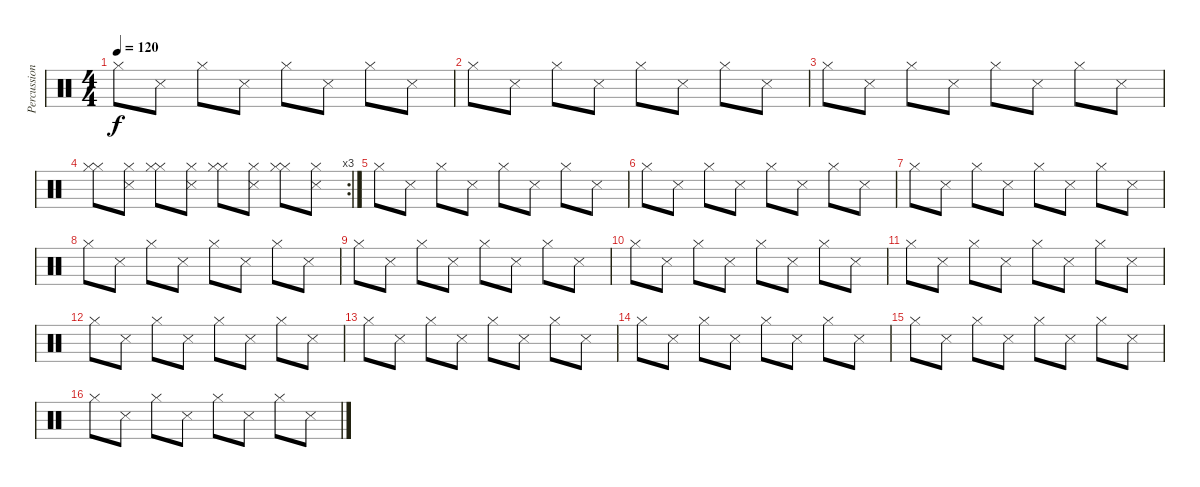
\track ("Percussion" "Percussion") {instrument percussion}
\staff {score}
\articulation defaults
\ts (4 4)
\tempo 120
\clef neutral
\ks c "Hi-Hat (closed)".8{dy f} "Snare (side stick) 3".8 "Hi-Hat (closed)".8 "Snare (side stick) 3".8 "Hi-Hat (closed)".8 "Snare (side stick) 3".8 "Hi-Hat (closed)".8 "Snare (side stick) 3".8
|
"Hi-Hat (closed)".8 "Snare (side stick) 3".8 "Hi-Hat (closed)".8 "Snare (side stick) 3".8 "Hi-Hat (closed)".8 "Snare (side stick) 3".8 "Hi-Hat (closed)".8 "Snare (side stick) 3".8 |
"Hi-Hat (closed)".8 "Snare (side stick) 3".8 "Hi-Hat (closed)".8 "Snare (side stick) 3".8 "Hi-Hat (closed)".8 "Snare (side stick) 3".8 "Hi-Hat (closed)".8 "Snare (side stick) 3".8 |
\rc 3
("Hi-Hat (closed)" "Hi-Hat (closed)").8 ("Snare (side stick) 3" "Hi-Hat (closed)").8 ("Hi-Hat (closed)" "Hi-Hat (closed)").8 ("Snare (side stick) 3" "Hi-Hat (closed)").8 ("Hi-Hat (closed)" "Hi-Hat (closed)").8 ("Snare (side stick) 3" "Hi-Hat (closed)").8 ("Hi-Hat (closed)" "Hi-Hat (closed)").8 ("Snare (side stick) 3" "Hi-Hat (closed)").8 |
"Hi-Hat (closed)".8 "Snare (side stick) 3".8 "Hi-Hat (closed)".8 "Snare (side stick) 3".8 "Hi-Hat (closed)".8 "Snare (side stick) 3".8 "Hi-Hat (closed)".8 "Snare (side stick) 3".8 |
"Hi-Hat (closed)".8 "Snare (side stick) 3".8 "Hi-Hat (closed)".8 "Snare (side stick) 3".8 "Hi-Hat (closed)".8 "Snare (side stick) 3".8 "Hi-Hat (closed)".8 "Snare (side stick) 3".8 |
"Hi-Hat (closed)".8 "Snare (side stick) 3".8 "Hi-Hat (closed)".8 "Snare (side stick) 3".8 "Hi-Hat (closed)".8 "Snare (side stick) 3".8 "Hi-Hat (closed)".8 "Snare (side stick) 3".8 |
"Hi-Hat (closed)".8 "Snare (side stick) 3".8 "Hi-Hat (closed)".8 "Snare (side stick) 3".8 "Hi-Hat (closed)".8 "Snare (side stick) 3".8 "Hi-Hat (closed)".8 "Snare (side stick) 3".8 |
"Hi-Hat (closed)".8 "Snare (side stick) 3".8 "Hi-Hat (closed)".8 "Snare (side stick) 3".8 "Hi-Hat (closed)".8 "Snare (side stick) 3".8 "Hi-Hat (closed)".8 "Snare (side stick) 3".8 |
"Hi-Hat (closed)".8 "Snare (side stick) 3".8 "Hi-Hat (closed)".8 "Snare (side stick) 3".8 "Hi-Hat (closed)".8 "Snare (side stick) 3".8 "Hi-Hat (closed)".8 "Snare (side stick) 3".8 |
"Hi-Hat (closed)".8 "Snare (side stick) 3".8 "Hi-Hat (closed)".8 "Snare (side stick) 3".8 "Hi-Hat (closed)".8 "Snare (side stick) 3".8 "Hi-Hat (closed)".8 "Snare (side stick) 3".8 |
"Hi-Hat (closed)".8 "Snare (side stick) 3".8 "Hi-Hat (closed)".8 "Snare (side stick) 3".8 "Hi-Hat (closed)".8 "Snare (side stick) 3".8 "Hi-Hat (closed)".8 "Snare (side stick) 3".8 |
"Hi-Hat (closed)".8 "Snare (side stick) 3".8 "Hi-Hat (closed)".8 "Snare (side stick) 3".8 "Hi-Hat (closed)".8 "Snare (side stick) 3".8 "Hi-Hat (closed)".8 "Snare (side stick) 3".8 |
"Hi-Hat (closed)".8 "Snare (side stick) 3".8 "Hi-Hat (closed)".8 "Snare (side stick) 3".8 "Hi-Hat (closed)".8 "Snare (side stick) 3".8 "Hi-Hat (closed)".8 "Snare (side stick) 3".8 |
"Hi-Hat (closed)".8 "Snare (side stick) 3".8 "Hi-Hat (closed)".8 "Snare (side stick) 3".8 "Hi-Hat (closed)".8 "Snare (side stick) 3".8 "Hi-Hat (closed)".8 "Snare (side stick) 3".8 |
"Hi-Hat (closed)".8 "Snare (side stick) 3".8 "Hi-Hat (closed)".8 "Snare (side stick) 3".8 "Hi-Hat (closed)".8 "Snare (side stick) 3".8 "Hi-Hat (closed)".8 "Snare (side stick) 3".8
